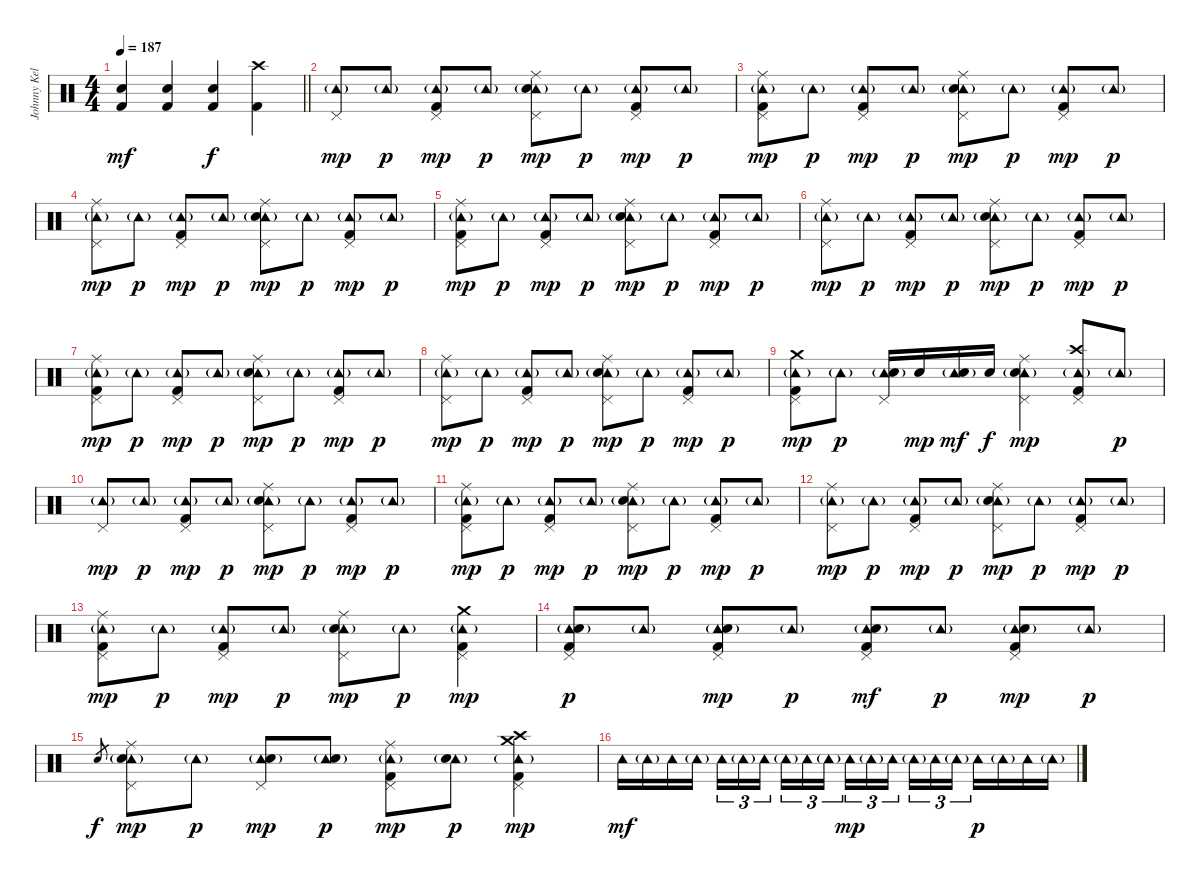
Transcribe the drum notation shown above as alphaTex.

\track ("Johnny Kelly" "Johnny Kel") {instrument percussion}
\staff {score}
\articulation defaults
\ts (4 4)
\tempo 187
\clef neutral
\barLineRight lightlight
\ks c
("Electric Snare (hit)" "Kick (hit) 2").4{dy mf} ("Electric Snare (hit)" "Kick (hit) 2").4 ("Electric Snare (hit)" "Kick (hit) 2").4{dy f} ("Crash high (hit)" "Kick (hit) 2").4 |
\section ("" "")
("Tambourine (hit)"{g} "Pedal Hi-Hat (hit)").8{dy mp} "Tambourine (hit)"{g}.8{dy p} ("Tambourine (hit)"{g} "Pedal Hi-Hat (hit)" "Kick (hit) 2").8{dy mp} "Tambourine (hit)"{g}.8{dy p} ("Tambourine (hit)"{g} "Pedal Hi-Hat (hit)" "Ride (middle)" "Electric Snare (hit)").8{dy mp} "Tambourine (hit)"{g}.8{dy p} ("Tambourine (hit)"{g} "Pedal Hi-Hat (hit)" "Kick (hit) 2").8{dy mp} "Tambourine (hit)"{g}.8{dy p} |
("Tambourine (hit)"{g} "Pedal Hi-Hat (hit)" "Ride (middle)" "Kick (hit) 2").8{dy mp} "Tambourine (hit)"{g}.8{dy p} ("Tambourine (hit)"{g} "Pedal Hi-Hat (hit)" "Kick (hit) 2").8{dy mp} "Tambourine (hit)"{g}.8{dy p} ("Tambourine (hit)"{g} "Pedal Hi-Hat (hit)" "Ride (middle)" "Electric Snare (hit)").8{dy mp} "Tambourine (hit)"{g}.8{dy p} ("Tambourine (hit)"{g} "Pedal Hi-Hat (hit)" "Kick (hit) 2").8{dy mp} "Tambourine (hit)"{g}.8{dy p} |
("Tambourine (hit)"{g} "Pedal Hi-Hat (hit)" "Ride (middle)").8{dy mp} "Tambourine (hit)"{g}.8{dy p} ("Tambourine (hit)"{g} "Pedal Hi-Hat (hit)" "Kick (hit) 2").8{dy mp} "Tambourine (hit)"{g}.8{dy p} ("Tambourine (hit)"{g} "Pedal Hi-Hat (hit)" "Ride (middle)" "Electric Snare (hit)").8{dy mp} "Tambourine (hit)"{g}.8{dy p} ("Tambourine (hit)"{g} "Pedal Hi-Hat (hit)" "Kick (hit) 2").8{dy mp} "Tambourine (hit)"{g}.8{dy p} |
("Tambourine (hit)"{g} "Pedal Hi-Hat (hit)" "Ride (middle)" "Kick (hit) 2").8{dy mp} "Tambourine (hit)"{g}.8{dy p} ("Tambourine (hit)"{g} "Pedal Hi-Hat (hit)" "Kick (hit) 2").8{dy mp} "Tambourine (hit)"{g}.8{dy p} ("Tambourine (hit)"{g} "Pedal Hi-Hat (hit)" "Ride (middle)" "Electric Snare (hit)").8{dy mp} "Tambourine (hit)"{g}.8{dy p} ("Tambourine (hit)"{g} "Pedal Hi-Hat (hit)" "Kick (hit) 2").8{dy mp} "Tambourine (hit)"{g}.8{dy p} |
("Tambourine (hit)"{g} "Pedal Hi-Hat (hit)" "Ride (middle)").8{dy mp} "Tambourine (hit)"{g}.8{dy p} ("Tambourine (hit)"{g} "Pedal Hi-Hat (hit)" "Kick (hit) 2").8{dy mp} "Tambourine (hit)"{g}.8{dy p} ("Tambourine (hit)"{g} "Pedal Hi-Hat (hit)" "Ride (middle)" "Electric Snare (hit)").8{dy mp} "Tambourine (hit)"{g}.8{dy p} ("Tambourine (hit)"{g} "Pedal Hi-Hat (hit)" "Kick (hit) 2").8{dy mp} "Tambourine (hit)"{g}.8{dy p} |
("Tambourine (hit)"{g} "Pedal Hi-Hat (hit)" "Ride (middle)" "Kick (hit) 2").8{dy mp} "Tambourine (hit)"{g}.8{dy p} ("Tambourine (hit)"{g} "Pedal Hi-Hat (hit)" "Kick (hit) 2").8{dy mp} "Tambourine (hit)"{g}.8{dy p} ("Tambourine (hit)"{g} "Pedal Hi-Hat (hit)" "Ride (middle)" "Electric Snare (hit)").8{dy mp} "Tambourine (hit)"{g}.8{dy p} ("Tambourine (hit)"{g} "Pedal Hi-Hat (hit)" "Kick (hit) 2").8{dy mp} "Tambourine (hit)"{g}.8{dy p} |
("Tambourine (hit)"{g} "Pedal Hi-Hat (hit)" "Ride (middle)").8{dy mp} "Tambourine (hit)"{g}.8{dy p} ("Tambourine (hit)"{g} "Pedal Hi-Hat (hit)" "Kick (hit) 2").8{dy mp} "Tambourine (hit)"{g}.8{dy p} ("Tambourine (hit)"{g} "Pedal Hi-Hat (hit)" "Ride (middle)" "Electric Snare (hit)").8{dy mp} "Tambourine (hit)"{g}.8{dy p} ("Tambourine (hit)"{g} "Pedal Hi-Hat (hit)" "Kick (hit) 2").8{dy mp} "Tambourine (hit)"{g}.8{dy p} |
("Tambourine (hit)"{g} "Pedal Hi-Hat (hit)" "Crash medium (hit)" "Kick (hit) 2").8{dy mp} "Tambourine (hit)"{g}.8{dy p} ("Tambourine (hit)"{g} "Pedal Hi-Hat (hit)" "Electric Snare (hit)").16 "Electric Snare (hit)".16{dy mp} ("Tambourine (hit)"{g} "Electric Snare (hit)").16{dy mf} "Electric Snare (hit)".16{dy f} ("Tambourine (hit)"{g} "Pedal Hi-Hat (hit)" "Ride (middle)" "Electric Snare (hit)").4{dy mp} ("Tambourine (hit)"{g} "Pedal Hi-Hat (hit)" "Crash high (hit)" "Kick (hit) 2").8 "Tambourine (hit)"{g}.8{dy p} |
("Tambourine (hit)"{g} "Pedal Hi-Hat (hit)").8{dy mp} "Tambourine (hit)"{g}.8{dy p} ("Tambourine (hit)"{g} "Pedal Hi-Hat (hit)" "Kick (hit) 2").8{dy mp} "Tambourine (hit)"{g}.8{dy p} ("Tambourine (hit)"{g} "Pedal Hi-Hat (hit)" "Ride (middle)" "Electric Snare (hit)").8{dy mp} "Tambourine (hit)"{g}.8{dy p} ("Tambourine (hit)"{g} "Pedal Hi-Hat (hit)" "Kick (hit) 2").8{dy mp} "Tambourine (hit)"{g}.8{dy p} |
("Tambourine (hit)"{g} "Pedal Hi-Hat (hit)" "Ride (middle)" "Kick (hit) 2").8{dy mp} "Tambourine (hit)"{g}.8{dy p} ("Tambourine (hit)"{g} "Pedal Hi-Hat (hit)" "Kick (hit) 2").8{dy mp} "Tambourine (hit)"{g}.8{dy p} ("Tambourine (hit)"{g} "Pedal Hi-Hat (hit)" "Ride (middle)" "Electric Snare (hit)").8{dy mp} "Tambourine (hit)"{g}.8{dy p} ("Tambourine (hit)"{g} "Pedal Hi-Hat (hit)" "Kick (hit) 2").8{dy mp} "Tambourine (hit)"{g}.8{dy p} |
("Tambourine (hit)"{g} "Pedal Hi-Hat (hit)" "Ride (middle)").8{dy mp} "Tambourine (hit)"{g}.8{dy p} ("Tambourine (hit)"{g} "Pedal Hi-Hat (hit)" "Kick (hit) 2").8{dy mp} "Tambourine (hit)"{g}.8{dy p} ("Tambourine (hit)"{g} "Pedal Hi-Hat (hit)" "Ride (middle)" "Electric Snare (hit)").8{dy mp} "Tambourine (hit)"{g}.8{dy p} ("Tambourine (hit)"{g} "Pedal Hi-Hat (hit)" "Kick (hit) 2").8{dy mp} "Tambourine (hit)"{g}.8{dy p} |
("Tambourine (hit)"{g} "Pedal Hi-Hat (hit)" "Ride (middle)" "Kick (hit) 2").8{dy mp} "Tambourine (hit)"{g}.8{dy p} ("Tambourine (hit)"{g} "Pedal Hi-Hat (hit)" "Kick (hit) 2").8{dy mp} "Tambourine (hit)"{g}.8{dy p} ("Tambourine (hit)"{g} "Pedal Hi-Hat (hit)" "Ride (middle)" "Electric Snare (hit)").8{dy mp} "Tambourine (hit)"{g}.8{dy p} ("Tambourine (hit)"{g} "Pedal Hi-Hat (hit)" "Crash medium (hit)" "Kick (hit) 2").4{dy mp} |
("Tambourine (hit)"{g} "Pedal Hi-Hat (hit)" "Electric Snare (hit)" "Kick (hit) 2").8{dy p} "Tambourine (hit)"{g}.8 ("Tambourine (hit)"{g} "Pedal Hi-Hat (hit)" "Electric Snare (hit)" "Kick (hit) 2").8{dy mp} "Tambourine (hit)"{g}.8{dy p} ("Tambourine (hit)"{g} "Pedal Hi-Hat (hit)" "Electric Snare (hit)" "Kick (hit) 2").8{dy mf} "Tambourine (hit)"{g}.8{dy p} ("Tambourine (hit)"{g} "Pedal Hi-Hat (hit)" "Electric Snare (hit)" "Kick (hit) 2").8{dy mp} "Tambourine (hit)"{g}.8{dy p} |
"Electric Snare (hit)".8{gr dy f} ("Tambourine (hit)"{g} "Pedal Hi-Hat (hit)" "Ride (middle)" "Electric Snare (hit)").8{dy mp} "Tambourine (hit)"{g}.8{dy p} ("Tambourine (hit)"{g} "Pedal Hi-Hat (hit)" "Electric Snare (hit)").8{dy mp} ("Tambourine (hit)"{g} "Electric Snare (hit)").8{dy p} ("Tambourine (hit)"{g} "Pedal Hi-Hat (hit)" "Ride (middle)" "Kick (hit) 2").8{dy mp} ("Tambourine (hit)"{g} "Electric Snare (hit)").8{dy p} ("Tambourine (hit)"{g} "Pedal Hi-Hat (hit)" "Crash medium (hit)" "Crash high (hit)" "Kick (hit) 2").4{dy mp} |
"Tambourine (hit)".16{dy mf} "Tambourine (hit)"{g}.16 "Tambourine (hit)".16 "Tambourine (hit)"{g}.16 "Tambourine (hit)".16{tu (3 2)} "Tambourine (hit)"{g}.16{tu (3 2)} "Tambourine (hit)".16{tu (3 2) beam splitsecondary} "Tambourine (hit)"{g}.16{tu (3 2)} "Tambourine (hit)".16{tu (3 2)} "Tambourine (hit)"{g}.16{tu (3 2)} "Tambourine (hit)".16{tu (3 2) dy mp} "Tambourine (hit)"{g}.16{tu (3 2)} "Tambourine (hit)".16{tu (3 2) beam splitsecondary} "Tambourine (hit)"{g}.16{tu (3 2)} "Tambourine (hit)".16{tu (3 2)} "Tambourine (hit)"{g}.16{tu (3 2)} "Tambourine (hit)".16{dy p} "Tambourine (hit)"{g}.16 "Tambourine (hit)".16 "Tambourine (hit)"{g}.16
